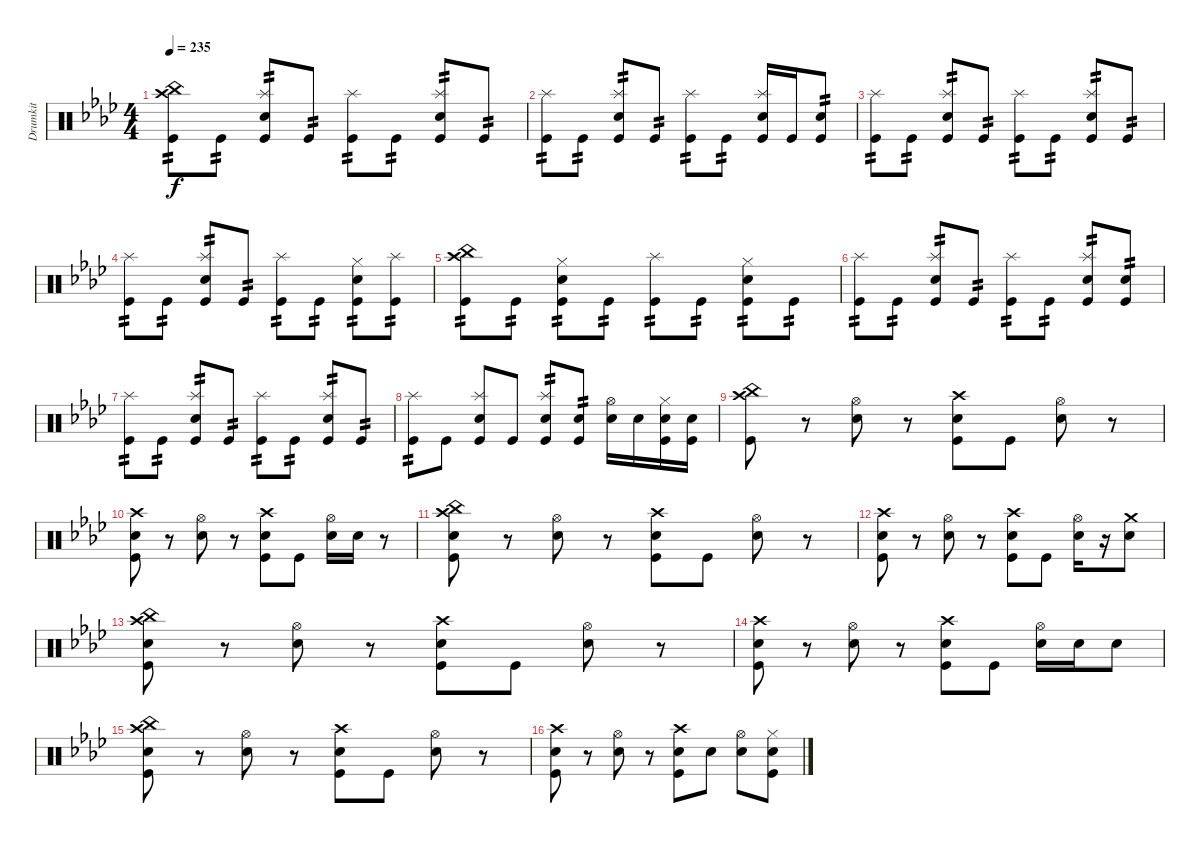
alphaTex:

\track ("Drumkit" "Drumkit") {instrument percussion}
\staff {score}
\articulation defaults
\ts (4 4)
\tempo 235
\clef neutral
\ks ab
("Crash high (hit)" "China (hit)" "Kick (hit)").8{tp 2 dy f} "Kick (hit)".8{tp 2} ("Splash (hit)" "Electric Snare (hit)" "Kick (hit)").8{tp 2} "Kick (hit)".8{tp 2} ("Splash (hit)" "Kick (hit)").8{tp 2} "Kick (hit)".8{tp 2} ("Splash (hit)" "Electric Snare (hit)" "Kick (hit)").8{tp 2} "Kick (hit)".8{tp 2} |
("Splash (hit)" "Kick (hit)").8{tp 2} "Kick (hit)".8{tp 2} ("Splash (hit)" "Electric Snare (hit)" "Kick (hit)").8{tp 2} "Kick (hit)".8{tp 2} ("Splash (hit)" "Kick (hit)").8{tp 2} "Kick (hit)".8{tp 2} ("Splash (hit)" "Electric Snare (hit)" "Kick (hit)").16 "Kick (hit)".16 ("Electric Snare (hit)" "Kick (hit)").8{tp 2} |
("Splash (hit)" "Kick (hit)").8{tp 2} "Kick (hit)".8{tp 2} ("Splash (hit)" "Electric Snare (hit)" "Kick (hit)").8{tp 2} "Kick (hit)".8{tp 2} ("Splash (hit)" "Kick (hit)").8{tp 2} "Kick (hit)".8{tp 2} ("Splash (hit)" "Electric Snare (hit)" "Kick (hit)").8{tp 2} "Kick (hit)".8{tp 2} |
("Splash (hit)" "Kick (hit)").8{tp 2} "Kick (hit)".8{tp 2} ("Splash (hit)" "Electric Snare (hit)" "Kick (hit)").8{tp 2} "Kick (hit)".8{tp 2} ("Splash (hit)" "Kick (hit)").8{tp 2} "Kick (hit)".8{tp 2} ("Hi-Hat (closed)" "Electric Snare (hit)" "Kick (hit)").8{tp 2} ("Splash (hit)" "Kick (hit)").8{tp 2} |
("Crash high (hit)" "China (hit)" "Kick (hit)").8{tp 2} "Kick (hit)".8{tp 2} ("Hi-Hat (closed)" "Electric Snare (hit)" "Kick (hit)").8{tp 2} "Kick (hit)".8{tp 2} ("Splash (hit)" "Kick (hit)").8{tp 2} "Kick (hit)".8{tp 2} ("Hi-Hat (closed)" "Electric Snare (hit)" "Kick (hit)").8{tp 2} "Kick (hit)".8{tp 2} |
("Splash (hit)" "Kick (hit)").8{tp 2} "Kick (hit)".8{tp 2} ("Splash (hit)" "Electric Snare (hit)" "Kick (hit)").8{tp 2} "Kick (hit)".8{tp 2} ("Splash (hit)" "Kick (hit)").8{tp 2} "Kick (hit)".8{tp 2} ("Splash (hit)" "Electric Snare (hit)" "Kick (hit)").8{tp 2} ("Electric Snare (hit)" "Kick (hit)").8{tp 2} |
("Splash (hit)" "Kick (hit)").8{tp 2} "Kick (hit)".8{tp 2} ("Splash (hit)" "Electric Snare (hit)" "Kick (hit)").8{tp 2} "Kick (hit)".8{tp 2} ("Splash (hit)" "Kick (hit)").8{tp 2} "Kick (hit)".8{tp 2} ("Splash (hit)" "Electric Snare (hit)" "Kick (hit)").8{tp 2} "Kick (hit)".8{tp 2} |
("Splash (hit)" "Kick (hit)").8{tp 2} "Kick (hit)".8 ("Splash (hit)" "Electric Snare (hit)" "Kick (hit)").8 "Kick (hit)".8 ("Splash (hit)" "Electric Snare (hit)" "Kick (hit)").8{tp 2} ("Electric Snare (hit)" "Kick (hit)").8{tp 2} ("Hi-Hat (open)" "Electric Snare (hit)").16 "Electric Snare (hit)".16 ("Hi-Hat (closed)" "Electric Snare (hit)" "Kick (hit)").16 ("Electric Snare (hit)" "Kick (hit)").16 |
("Crash high (hit)" "China (hit)" "Kick (hit)").8 r.8 ("Hi-Hat (open)" "Electric Snare (hit)").8 r.8 ("Crash high (hit)" "Electric Snare (hit)" "Kick (hit)").8 "Kick (hit)".8 ("Hi-Hat (open)" "Electric Snare (hit)").8 r.8 |
("Crash high (hit)" "Electric Snare (hit)" "Kick (hit)").8 r.8 ("Hi-Hat (open)" "Electric Snare (hit)").8 r.8 ("Crash high (hit)" "Electric Snare (hit)" "Kick (hit)").8 "Kick (hit)".8 ("Hi-Hat (open)" "Electric Snare (hit)").16 "Electric Snare (hit)".16 r.8 |
("Crash high (hit)" "China (hit)" "Electric Snare (hit)" "Kick (hit)").8 r.8 ("Hi-Hat (open)" "Electric Snare (hit)").8 r.8 ("Crash high (hit)" "Electric Snare (hit)" "Kick (hit)").8 "Kick (hit)".8 ("Hi-Hat (open)" "Electric Snare (hit)").8 r.8 |
("Crash high (hit)" "Electric Snare (hit)" "Kick (hit)").8 r.8 ("Hi-Hat (open)" "Electric Snare (hit)").8 r.8 ("Crash high (hit)" "Electric Snare (hit)" "Kick (hit)").8 "Kick (hit)".8 ("Hi-Hat (open)" "Electric Snare (hit)").16 r.16 ("Crash medium (hit)" "Electric Snare (hit)").8 |
("Crash high (hit)" "China (hit)" "Electric Snare (hit)" "Kick (hit)").8 r.8 ("Hi-Hat (open)" "Electric Snare (hit)").8 r.8 ("Crash high (hit)" "Electric Snare (hit)" "Kick (hit)").8 "Kick (hit)".8 ("Hi-Hat (open)" "Electric Snare (hit)").8 r.8 |
("Crash high (hit)" "Electric Snare (hit)" "Kick (hit)").8 r.8 ("Hi-Hat (open)" "Electric Snare (hit)").8 r.8 ("Crash high (hit)" "Electric Snare (hit)" "Kick (hit)").8 "Kick (hit)".8 ("Hi-Hat (open)" "Electric Snare (hit)").16 "Electric Snare (hit)".16 "Electric Snare (hit)".8 |
("Crash high (hit)" "China (hit)" "Electric Snare (hit)" "Kick (hit)").8 r.8 ("Hi-Hat (open)" "Electric Snare (hit)").8 r.8 ("Crash high (hit)" "Electric Snare (hit)" "Kick (hit)").8 "Kick (hit)".8 ("Hi-Hat (open)" "Electric Snare (hit)").8 r.8 |
("Crash high (hit)" "Electric Snare (hit)" "Kick (hit)").8 r.8 ("Hi-Hat (open)" "Electric Snare (hit)").8 r.8 ("Crash high (hit)" "Electric Snare (hit)" "Kick (hit)").8 "Electric Snare (hit)".8 ("Hi-Hat (open)" "Electric Snare (hit)").8 ("Hi-Hat (closed)" "Electric Snare (hit)" "Kick (hit)").8
